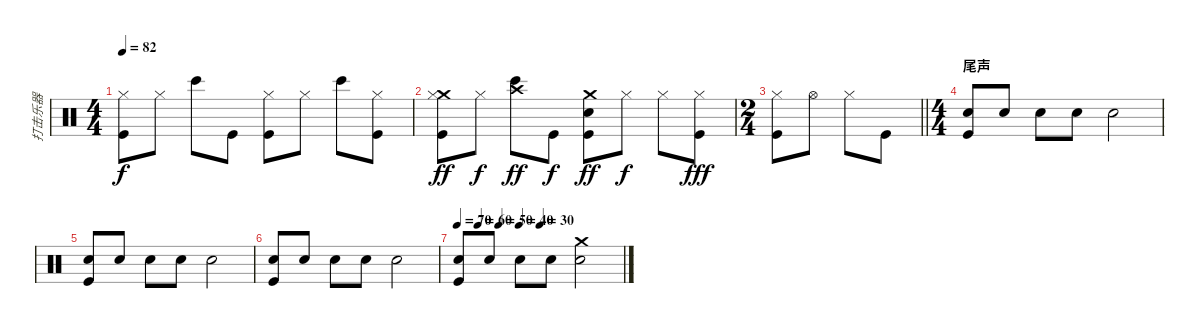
\track ("打击乐器" "打击乐器") {instrument percussion}
\staff {score}
\articulation defaults
\ts (4 4)
\tempo 82
\clef neutral
\ks c
("Hi-Hat (closed)" "Kick (hit)").8{dy f} "Hi-Hat (closed)".8 "Bongo High (hit)".8 "Kick (hit)".8 ("Hi-Hat (closed)" "Kick (hit)").8 "Hi-Hat (closed)".8 "Bongo High (hit)".8 ("Hi-Hat (closed)" "Kick (hit)").8 |
("Crash medium (hit)" "Hi-Hat (closed)" "Kick (hit)").8{dy ff} "Hi-Hat (closed)".8{dy f} ("Crash high (hit)" "Bongo High (hit)").8{dy ff} "Kick (hit)".8{dy f} ("Crash medium (hit)" "Electric Snare (hit)" "Kick (hit)").8{dy ff} "Hi-Hat (closed)".8{dy f} "Hi-Hat (closed)".8 ("Hi-Hat (closed)" "Kick (hit)").8{dy fff} |
\ts (2 4)
\barLineRight lightlight
("Hi-Hat (closed)" "Kick (hit)").8 "Hi-Hat (open)".8 "Hi-Hat (closed)".8 "Kick (hit)".8 |
\ts (4 4)
\section ("" "尾声")
("Electric Snare (hit)" "Kick (hit)").8 "Electric Snare (hit)".8 "Electric Snare (hit)".8 "Electric Snare (hit)".8 "Electric Snare (hit)".2 |
("Electric Snare (hit)" "Kick (hit)").8 "Electric Snare (hit)".8 "Electric Snare (hit)".8 "Electric Snare (hit)".8 "Electric Snare (hit)".2 |
("Electric Snare (hit)" "Kick (hit)").8 "Electric Snare (hit)".8 "Electric Snare (hit)".8 "Electric Snare (hit)".8 "Electric Snare (hit)".2 |
\tempo 70
\tempo (60 0.125)
\tempo (50 0.25)
\tempo (40 0.375)
\tempo (30 0.5)
("Electric Snare (hit)" "Kick (hit)").8 "Electric Snare (hit)".8 "Electric Snare (hit)".8 "Electric Snare (hit)".8 ("Crash medium (hit)" "Electric Snare (hit)").2
